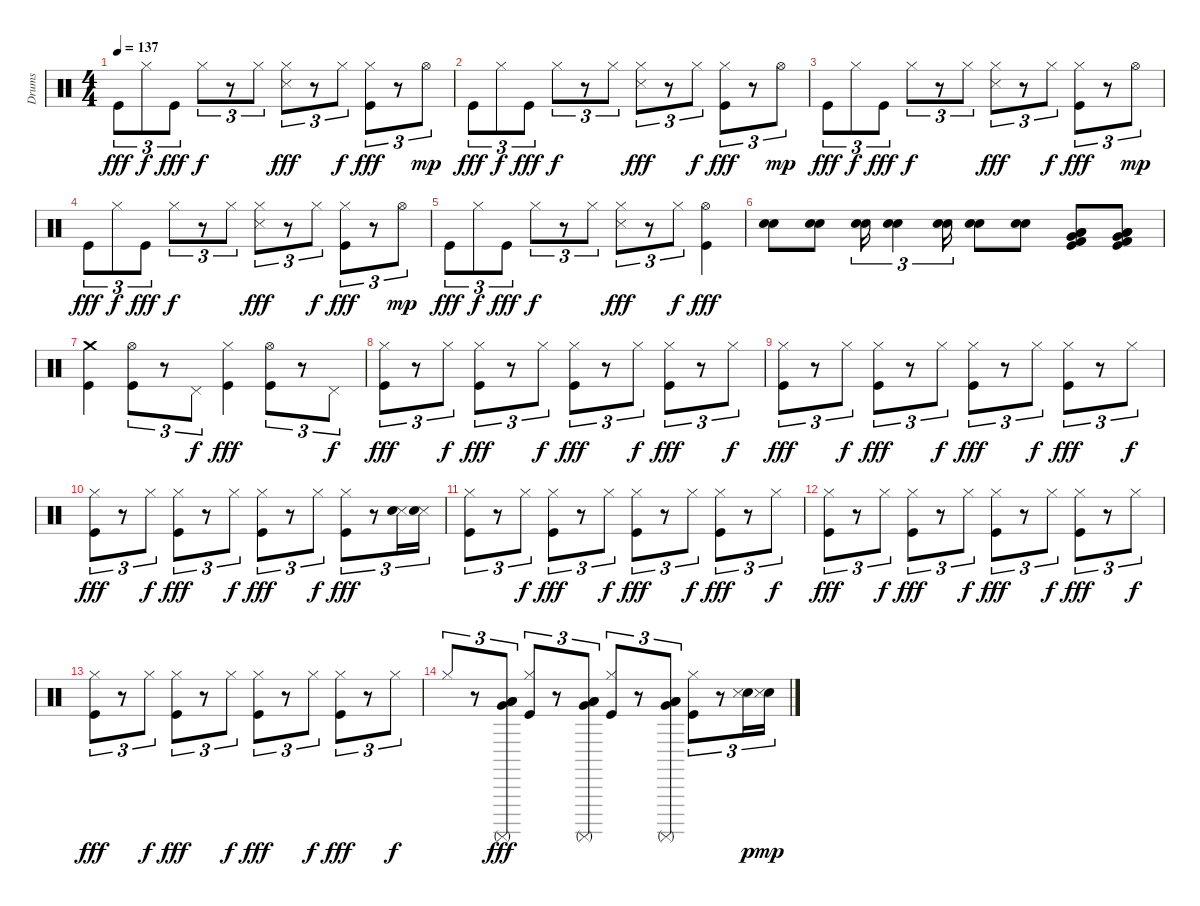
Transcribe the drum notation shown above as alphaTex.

\track ("Drums" "Drums") {instrument percussion}
\staff {score}
\articulation defaults
\ts (4 4)
\tempo 137
\clef neutral
\ks c "Kick (hit)".8{tu (3 2) dy fff} "Hi-Hat (closed)".8{tu (3 2) dy f} "Kick (hit)".8{tu (3 2) dy fff} "Hi-Hat (closed)".8{tu (3 2) dy f}
r.8{tu (3 2)} "Hi-Hat (closed)".8{tu (3 2)} ("Hi-Hat (closed)" "Snare (side stick) 3").8{tu (3 2) dy fff} r.8{tu (3 2)} "Hi-Hat (closed)".8{tu (3 2) dy f} ("Hi-Hat (closed)" "Kick (hit)").8{tu (3 2) dy fff} r.8{tu (3 2)} "Hi-Hat (open)".8{tu (3 2) dy mp} |
"Kick (hit)".8{tu (3 2) dy fff} "Hi-Hat (closed)".8{tu (3 2) dy f} "Kick (hit)".8{tu (3 2) dy fff} "Hi-Hat (closed)".8{tu (3 2) dy f} r.8{tu (3 2)} "Hi-Hat (closed)".8{tu (3 2)} ("Hi-Hat (closed)" "Snare (side stick) 3").8{tu (3 2) dy fff} r.8{tu (3 2)} "Hi-Hat (closed)".8{tu (3 2) dy f} ("Hi-Hat (closed)" "Kick (hit)").8{tu (3 2) dy fff} r.8{tu (3 2)} "Hi-Hat (open)".8{tu (3 2) dy mp} |
"Kick (hit)".8{tu (3 2) dy fff} "Hi-Hat (closed)".8{tu (3 2) dy f} "Kick (hit)".8{tu (3 2) dy fff} "Hi-Hat (closed)".8{tu (3 2) dy f} r.8{tu (3 2)} "Hi-Hat (closed)".8{tu (3 2)} ("Hi-Hat (closed)" "Snare (side stick) 3").8{tu (3 2) dy fff} r.8{tu (3 2)} "Hi-Hat (closed)".8{tu (3 2) dy f} ("Hi-Hat (closed)" "Kick (hit)").8{tu (3 2) dy fff} r.8{tu (3 2)} "Hi-Hat (open)".8{tu (3 2) dy mp} |
"Kick (hit)".8{tu (3 2) dy fff} "Hi-Hat (closed)".8{tu (3 2) dy f} "Kick (hit)".8{tu (3 2) dy fff} "Hi-Hat (closed)".8{tu (3 2) dy f} r.8{tu (3 2)} "Hi-Hat (closed)".8{tu (3 2)} ("Hi-Hat (closed)" "Snare (side stick) 3").8{tu (3 2) dy fff} r.8{tu (3 2)} "Hi-Hat (closed)".8{tu (3 2) dy f} ("Hi-Hat (closed)" "Kick (hit)").8{tu (3 2) dy fff} r.8{tu (3 2)} "Hi-Hat (open)".8{tu (3 2) dy mp} |
"Kick (hit)".8{tu (3 2) dy fff} "Hi-Hat (closed)".8{tu (3 2) dy f} "Kick (hit)".8{tu (3 2) dy fff} "Hi-Hat (closed)".8{tu (3 2) dy f} r.8{tu (3 2)} "Hi-Hat (closed)".8{tu (3 2)} ("Hi-Hat (closed)" "Snare (side stick) 3").8{tu (3 2) dy fff} r.8{tu (3 2)} "Hi-Hat (closed)".8{tu (3 2) dy f} ("Hi-Hat (open)" "Kick (hit)").4{dy fff} |
("Snare (hit) 2" "Electric Snare (hit)").8{volume 16} ("Snare (hit) 2" "Electric Snare (hit)").8 ("Snare (hit) 2" "Electric Snare (hit)").16{tu (3 2)} ("Snare (hit) 2" "Electric Snare (hit)").4{tu (3 2)} ("Snare (hit) 2" "Electric Snare (hit)").16{tu (3 2)} ("Snare (hit) 2" "Electric Snare (hit)").8 ("Snare (hit) 2" "Electric Snare (hit)").8 ("Low Tom (hit)" "Very Low Tom (hit)" "Low Floor Tom (hit)" "Kick (hit)" "Kick (hit) 2").8 ("Low Tom (hit)" "Very Low Tom (hit)" "Low Floor Tom (hit)" "Kick (hit)" "Kick (hit) 2").8 |
("Crash medium (hit)" "Kick (hit)").4 ("Hi-Hat (open)" "Kick (hit)").8{tu (3 2) volume 10} r.8{tu (3 2)} "Pedal Hi-Hat (hit)".8{tu (3 2) dy f} ("Hi-Hat (closed)" "Kick (hit)").4{dy fff} ("Hi-Hat (open)" "Kick (hit)").8{tu (3 2)} r.8{tu (3 2)} "Pedal Hi-Hat (hit)".8{tu (3 2) dy f} |
("Hi-Hat (closed)" "Kick (hit)").8{tu (3 2) dy fff volume 5} r.8{tu (3 2)} "Hi-Hat (closed)".8{tu (3 2) dy f} ("Hi-Hat (closed)" "Kick (hit)").8{tu (3 2) dy fff} r.8{tu (3 2)} "Hi-Hat (closed)".8{tu (3 2) dy f} ("Hi-Hat (closed)" "Kick (hit)").8{tu (3 2) dy fff} r.8{tu (3 2)} "Hi-Hat (closed)".8{tu (3 2) dy f} ("Hi-Hat (closed)" "Kick (hit)").8{tu (3 2) dy fff} r.8{tu (3 2)} "Hi-Hat (closed)".8{tu (3 2) dy f} |
("Hi-Hat (closed)" "Kick (hit)").8{tu (3 2) dy fff} r.8{tu (3 2)} "Hi-Hat (closed)".8{tu (3 2) dy f} ("Hi-Hat (closed)" "Kick (hit)").8{tu (3 2) dy fff} r.8{tu (3 2)} "Hi-Hat (closed)".8{tu (3 2) dy f} ("Hi-Hat (closed)" "Kick (hit)").8{tu (3 2) dy fff} r.8{tu (3 2)} "Hi-Hat (closed)".8{tu (3 2) dy f} ("Hi-Hat (closed)" "Kick (hit)").8{tu (3 2) dy fff} r.8{tu (3 2)} "Hi-Hat (closed)".8{tu (3 2) dy f} |
("Hi-Hat (closed)" "Kick (hit)").8{tu (3 2) dy fff} r.8{tu (3 2)} "Hi-Hat (closed)".8{tu (3 2) dy f} ("Hi-Hat (closed)" "Kick (hit)").8{tu (3 2) dy fff} r.8{tu (3 2)} "Hi-Hat (closed)".8{tu (3 2) dy f} ("Hi-Hat (closed)" "Kick (hit)").8{tu (3 2) dy fff} r.8{tu (3 2)} "Hi-Hat (closed)".8{tu (3 2) dy f} ("Hi-Hat (closed)" "Kick (hit)").8{tu (3 2) dy fff} r.8{tu (3 2)} ("Snare (side stick) 3" "Electric Snare (hit)").16{tu (3 2)} ("Snare (side stick) 3" "Electric Snare (hit)").16{tu (3 2)} |
("Hi-Hat (closed)" "Kick (hit)").8{tu (3 2) volume 0} r.8{tu (3 2)} "Hi-Hat (closed)".8{tu (3 2) dy f} ("Hi-Hat (closed)" "Kick (hit)").8{tu (3 2) dy fff} r.8{tu (3 2)} "Hi-Hat (closed)".8{tu (3 2) dy f} ("Hi-Hat (closed)" "Kick (hit)").8{tu (3 2) dy fff} r.8{tu (3 2)} "Hi-Hat (closed)".8{tu (3 2) dy f} ("Hi-Hat (closed)" "Kick (hit)").8{tu (3 2) dy fff} r.8{tu (3 2)} "Hi-Hat (closed)".8{tu (3 2) dy f} |
("Hi-Hat (closed)" "Kick (hit)").8{tu (3 2) dy fff} r.8{tu (3 2)} "Hi-Hat (closed)".8{tu (3 2) dy f} ("Hi-Hat (closed)" "Kick (hit)").8{tu (3 2) dy fff} r.8{tu (3 2)} "Hi-Hat (closed)".8{tu (3 2) dy f} ("Hi-Hat (closed)" "Kick (hit)").8{tu (3 2) dy fff} r.8{tu (3 2)} "Hi-Hat (closed)".8{tu (3 2) dy f} ("Hi-Hat (closed)" "Kick (hit)").8{tu (3 2) dy fff} r.8{tu (3 2)} "Hi-Hat (closed)".8{tu (3 2) dy f} |
("Hi-Hat (closed)" "Kick (hit)").8{tu (3 2) dy fff} r.8{tu (3 2)} "Hi-Hat (closed)".8{tu (3 2) dy f} ("Hi-Hat (closed)" "Kick (hit)").8{tu (3 2) dy fff} r.8{tu (3 2)} "Hi-Hat (closed)".8{tu (3 2) dy f} ("Hi-Hat (closed)" "Kick (hit)").8{tu (3 2) dy fff} r.8{tu (3 2)} "Hi-Hat (closed)".8{tu (3 2) dy f} ("Hi-Hat (closed)" "Kick (hit)").8{tu (3 2) dy fff} r.8{tu (3 2)} "Hi-Hat (closed)".8{tu (3 2) dy f} |
"Hi-Hat (closed)".8{tu (3 2)} r.8{tu (3 2)} ("Surdo (mute)" "Low Tom (hit)" "Very Low Tom (hit)" "Low Floor Tom (hit)").8{tu (3 2) dy fff} ("Hi-Hat (closed)" "Kick (hit)").8{tu (3 2)} r.8{tu (3 2)} ("Surdo (mute)" "Low Tom (hit)" "Very Low Tom (hit)" "Low Floor Tom (hit)").8{tu (3 2)} ("Hi-Hat (closed)" "Kick (hit)").8{tu (3 2)} r.8{tu (3 2)} ("Surdo (mute)" "Low Tom (hit)" "Very Low Tom (hit)" "Low Floor Tom (hit)").8{tu (3 2)} ("Hi-Hat (closed)" "Kick (hit)").8{tu (3 2)} r.8{tu (3 2)} ("Electric Snare (hit)" "Snare (side stick) 3").16{tu (3 2) dy p} ("Electric Snare (hit)" "Snare (side stick) 3").16{tu (3 2) dy mp}
